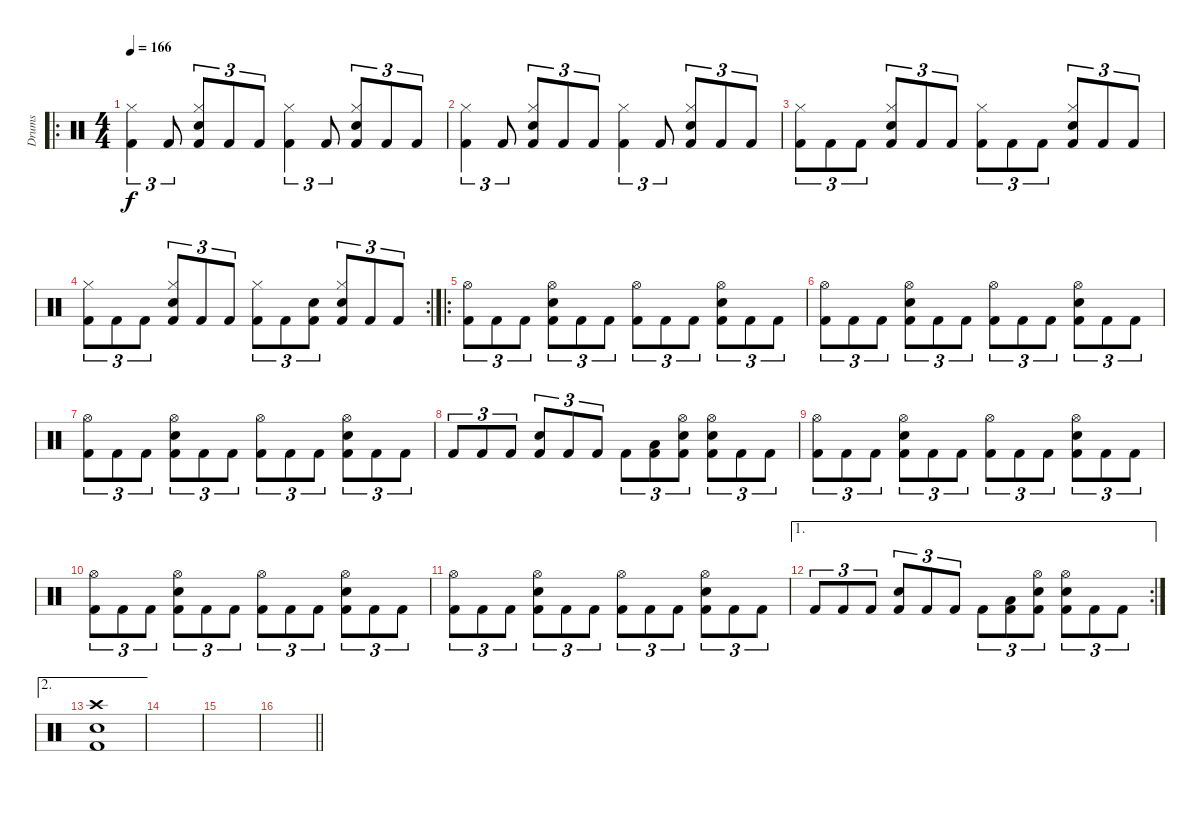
\track ("Drums" "Drums") {instrument percussion}
\staff {score}
\articulation defaults
\ro
\ts (4 4)
\tempo 166
\clef neutral
\ks c
("Kick (hit) 2" "Hi-Hat (closed)").4{tu (3 2) dy f} "Kick (hit) 2".8{tu (3 2)} ("Kick (hit) 2" "Electric Snare (hit)" "Hi-Hat (closed)").8{tu (3 2)} "Kick (hit) 2".8{tu (3 2)} "Kick (hit) 2".8{tu (3 2)} ("Kick (hit) 2" "Hi-Hat (closed)").4{tu (3 2)} "Kick (hit) 2".8{tu (3 2)} ("Kick (hit) 2" "Electric Snare (hit)" "Hi-Hat (closed)").8{tu (3 2)} "Kick (hit) 2".8{tu (3 2)} "Kick (hit) 2".8{tu (3 2)} |
("Kick (hit) 2" "Hi-Hat (closed)").4{tu (3 2)} "Kick (hit) 2".8{tu (3 2)} ("Kick (hit) 2" "Electric Snare (hit)" "Hi-Hat (closed)").8{tu (3 2)} "Kick (hit) 2".8{tu (3 2)} "Kick (hit) 2".8{tu (3 2)} ("Kick (hit) 2" "Hi-Hat (closed)").4{tu (3 2)} "Kick (hit) 2".8{tu (3 2)} ("Kick (hit) 2" "Electric Snare (hit)" "Hi-Hat (closed)").8{tu (3 2)} "Kick (hit) 2".8{tu (3 2)} "Kick (hit) 2".8{tu (3 2)} |
("Kick (hit) 2" "Hi-Hat (closed)").8{tu (3 2)} "Kick (hit) 2".8{tu (3 2)} "Kick (hit) 2".8{tu (3 2)} ("Kick (hit) 2" "Electric Snare (hit)" "Hi-Hat (closed)").8{tu (3 2)} "Kick (hit) 2".8{tu (3 2)} "Kick (hit) 2".8{tu (3 2)} ("Kick (hit) 2" "Hi-Hat (closed)").8{tu (3 2)} "Kick (hit) 2".8{tu (3 2)} "Kick (hit) 2".8{tu (3 2)} ("Kick (hit) 2" "Electric Snare (hit)" "Hi-Hat (closed)").8{tu (3 2)} "Kick (hit) 2".8{tu (3 2)} "Kick (hit) 2".8{tu (3 2)} |
\rc 2
("Kick (hit) 2" "Hi-Hat (closed)").8{tu (3 2)} "Kick (hit) 2".8{tu (3 2)} "Kick (hit) 2".8{tu (3 2)} ("Kick (hit) 2" "Electric Snare (hit)" "Hi-Hat (closed)").8{tu (3 2)} "Kick (hit) 2".8{tu (3 2)} "Kick (hit) 2".8{tu (3 2)} ("Kick (hit) 2" "Hi-Hat (closed)").8{tu (3 2)} "Kick (hit) 2".8{tu (3 2)} ("Kick (hit) 2" "Electric Snare (hit)").8{tu (3 2)} ("Kick (hit) 2" "Electric Snare (hit)" "Hi-Hat (closed)").8{tu (3 2)} "Kick (hit) 2".8{tu (3 2)} "Kick (hit) 2".8{tu (3 2)} |
\ro
("Kick (hit) 2" "Hi-Hat (open)").8{tu (3 2)} "Kick (hit) 2".8{tu (3 2)} "Kick (hit) 2".8{tu (3 2)} ("Kick (hit) 2" "Hi-Hat (open)" "Electric Snare (hit)").8{tu (3 2)} "Kick (hit) 2".8{tu (3 2)} "Kick (hit) 2".8{tu (3 2)} ("Kick (hit) 2" "Hi-Hat (open)").8{tu (3 2)} "Kick (hit) 2".8{tu (3 2)} "Kick (hit) 2".8{tu (3 2)} ("Kick (hit) 2" "Hi-Hat (open)" "Electric Snare (hit)").8{tu (3 2)} "Kick (hit) 2".8{tu (3 2)} "Kick (hit) 2".8{tu (3 2)} |
("Kick (hit) 2" "Hi-Hat (open)").8{tu (3 2)} "Kick (hit) 2".8{tu (3 2)} "Kick (hit) 2".8{tu (3 2)} ("Kick (hit) 2" "Hi-Hat (open)" "Electric Snare (hit)").8{tu (3 2)} "Kick (hit) 2".8{tu (3 2)} "Kick (hit) 2".8{tu (3 2)} ("Kick (hit) 2" "Hi-Hat (open)").8{tu (3 2)} "Kick (hit) 2".8{tu (3 2)} "Kick (hit) 2".8{tu (3 2)} ("Kick (hit) 2" "Hi-Hat (open)" "Electric Snare (hit)").8{tu (3 2)} "Kick (hit) 2".8{tu (3 2)} "Kick (hit) 2".8{tu (3 2)} |
("Kick (hit) 2" "Hi-Hat (open)").8{tu (3 2)} "Kick (hit) 2".8{tu (3 2)} "Kick (hit) 2".8{tu (3 2)} ("Kick (hit) 2" "Hi-Hat (open)" "Electric Snare (hit)").8{tu (3 2)} "Kick (hit) 2".8{tu (3 2)} "Kick (hit) 2".8{tu (3 2)} ("Kick (hit) 2" "Hi-Hat (open)").8{tu (3 2)} "Kick (hit) 2".8{tu (3 2)} "Kick (hit) 2".8{tu (3 2)} ("Kick (hit) 2" "Hi-Hat (open)" "Electric Snare (hit)").8{tu (3 2)} "Kick (hit) 2".8{tu (3 2)} "Kick (hit) 2".8{tu (3 2)} |
"Kick (hit) 2".8{tu (3 2)} "Kick (hit) 2".8{tu (3 2)} "Kick (hit) 2".8{tu (3 2)} ("Kick (hit) 2" "Electric Snare (hit)").8{tu (3 2)} "Kick (hit) 2".8{tu (3 2)} "Kick (hit) 2".8{tu (3 2)} "Kick (hit) 2".8{tu (3 2)} ("Kick (hit) 2" "Low Floor Tom (hit)").8{tu (3 2)} ("Kick (hit) 2" "Hi-Hat (open)" "Electric Snare (hit)").8{tu (3 2)} ("Kick (hit) 2" "Hi-Hat (open)" "Electric Snare (hit)").8{tu (3 2)} "Kick (hit) 2".8{tu (3 2)} "Kick (hit) 2".8{tu (3 2)} |
("Kick (hit) 2" "Hi-Hat (open)").8{tu (3 2)} "Kick (hit) 2".8{tu (3 2)} "Kick (hit) 2".8{tu (3 2)} ("Kick (hit) 2" "Hi-Hat (open)" "Electric Snare (hit)").8{tu (3 2)} "Kick (hit) 2".8{tu (3 2)} "Kick (hit) 2".8{tu (3 2)} ("Kick (hit) 2" "Hi-Hat (open)").8{tu (3 2)} "Kick (hit) 2".8{tu (3 2)} "Kick (hit) 2".8{tu (3 2)} ("Kick (hit) 2" "Hi-Hat (open)" "Electric Snare (hit)").8{tu (3 2)} "Kick (hit) 2".8{tu (3 2)} "Kick (hit) 2".8{tu (3 2)} |
("Kick (hit) 2" "Hi-Hat (open)").8{tu (3 2)} "Kick (hit) 2".8{tu (3 2)} "Kick (hit) 2".8{tu (3 2)} ("Kick (hit) 2" "Hi-Hat (open)" "Electric Snare (hit)").8{tu (3 2)} "Kick (hit) 2".8{tu (3 2)} "Kick (hit) 2".8{tu (3 2)} ("Kick (hit) 2" "Hi-Hat (open)").8{tu (3 2)} "Kick (hit) 2".8{tu (3 2)} "Kick (hit) 2".8{tu (3 2)} ("Kick (hit) 2" "Hi-Hat (open)" "Electric Snare (hit)").8{tu (3 2)} "Kick (hit) 2".8{tu (3 2)} "Kick (hit) 2".8{tu (3 2)} |
("Kick (hit) 2" "Hi-Hat (open)").8{tu (3 2)} "Kick (hit) 2".8{tu (3 2)} "Kick (hit) 2".8{tu (3 2)} ("Kick (hit) 2" "Hi-Hat (open)" "Electric Snare (hit)").8{tu (3 2)} "Kick (hit) 2".8{tu (3 2)} "Kick (hit) 2".8{tu (3 2)} ("Kick (hit) 2" "Hi-Hat (open)").8{tu (3 2)} "Kick (hit) 2".8{tu (3 2)} "Kick (hit) 2".8{tu (3 2)} ("Kick (hit) 2" "Hi-Hat (open)" "Electric Snare (hit)").8{tu (3 2)} "Kick (hit) 2".8{tu (3 2)} "Kick (hit) 2".8{tu (3 2)} |
\ae 1
\rc 2 "Kick (hit) 2".8{tu (3 2)} "Kick (hit) 2".8{tu (3 2)} "Kick (hit) 2".8{tu (3 2)}
("Kick (hit) 2" "Electric Snare (hit)").8{tu (3 2)} "Kick (hit) 2".8{tu (3 2)} "Kick (hit) 2".8{tu (3 2)} "Kick (hit) 2".8{tu (3 2)} ("Kick (hit) 2" "Low Floor Tom (hit)").8{tu (3 2)} ("Kick (hit) 2" "Hi-Hat (open)" "Electric Snare (hit)").8{tu (3 2)} ("Kick (hit) 2" "Hi-Hat (open)" "Electric Snare (hit)").8{tu (3 2)} "Kick (hit) 2".8{tu (3 2)} "Kick (hit) 2".8{tu (3 2)} |
\ae 2
("Kick (hit) 2" "Electric Snare (hit)" "Crash high (hit)").1 |
|
|
\barLineRight lightlight
